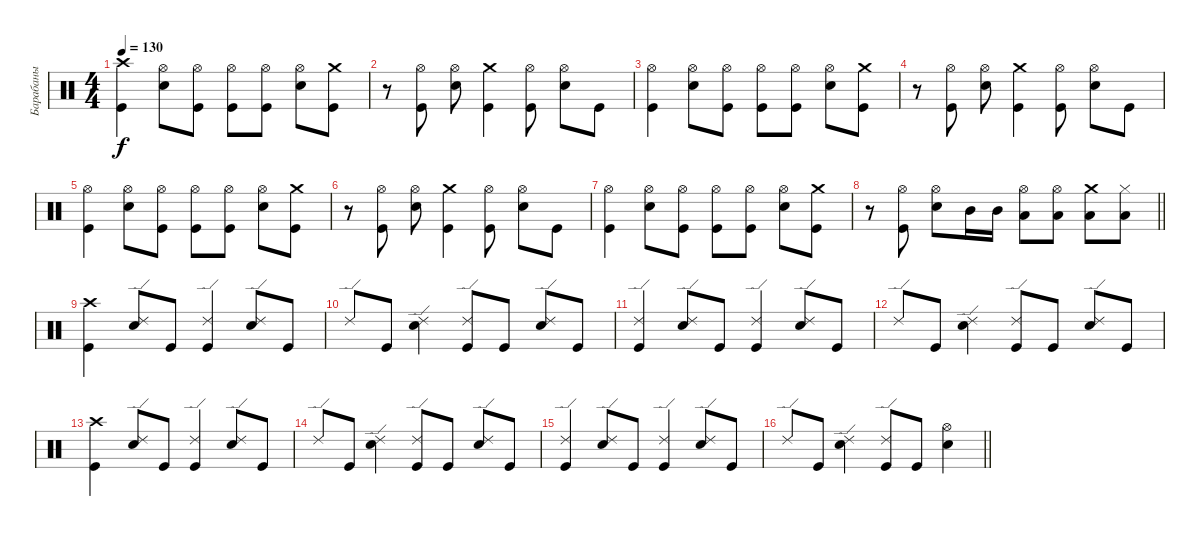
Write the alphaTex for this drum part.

\track ("Барабаны" "Барабаны") {instrument percussion}
\staff {score}
\articulation defaults
\ts (4 4)
\tempo 130
\clef neutral
\ks c
("Crash high (hit)" "Kick (hit)").4{dy f} ("Hi-Hat (open)" "Electric Snare (hit)").8 ("Hi-Hat (open)" "Kick (hit)").8 ("Hi-Hat (open)" "Kick (hit)").8 ("Hi-Hat (open)" "Kick (hit)").8 ("Hi-Hat (open)" "Electric Snare (hit)").8 ("Crash medium (hit)" "Kick (hit)").8 |
r.8 ("Hi-Hat (open)" "Kick (hit)").8 ("Hi-Hat (open)" "Electric Snare (hit)").8 ("Crash medium (hit)" "Kick (hit)").4 ("Hi-Hat (open)" "Kick (hit)").8 ("Hi-Hat (open)" "Electric Snare (hit)").8 "Kick (hit)".8 |
("Hi-Hat (open)" "Kick (hit)").4 ("Hi-Hat (open)" "Electric Snare (hit)").8 ("Hi-Hat (open)" "Kick (hit)").8 ("Hi-Hat (open)" "Kick (hit)").8 ("Hi-Hat (open)" "Kick (hit)").8 ("Hi-Hat (open)" "Electric Snare (hit)").8 ("Crash medium (hit)" "Kick (hit)").8 |
r.8 ("Hi-Hat (open)" "Kick (hit)").8 ("Hi-Hat (open)" "Electric Snare (hit)").8 ("Crash medium (hit)" "Kick (hit)").4 ("Hi-Hat (open)" "Kick (hit)").8 ("Hi-Hat (open)" "Electric Snare (hit)").8 "Kick (hit)".8 |
("Hi-Hat (open)" "Kick (hit)").4 ("Hi-Hat (open)" "Electric Snare (hit)").8 ("Hi-Hat (open)" "Kick (hit)").8 ("Hi-Hat (open)" "Kick (hit)").8 ("Hi-Hat (open)" "Kick (hit)").8 ("Hi-Hat (open)" "Electric Snare (hit)").8 ("Crash medium (hit)" "Kick (hit)").8 |
r.8 ("Hi-Hat (open)" "Kick (hit)").8 ("Hi-Hat (open)" "Electric Snare (hit)").8 ("Crash medium (hit)" "Kick (hit)").4 ("Hi-Hat (open)" "Kick (hit)").8 ("Hi-Hat (open)" "Electric Snare (hit)").8 "Kick (hit)".8 |
("Hi-Hat (open)" "Kick (hit)").4 ("Hi-Hat (open)" "Electric Snare (hit)").8 ("Hi-Hat (open)" "Kick (hit)").8 ("Hi-Hat (open)" "Kick (hit)").8 ("Hi-Hat (open)" "Kick (hit)").8 ("Hi-Hat (open)" "Electric Snare (hit)").8 ("Crash medium (hit)" "Kick (hit)").8 |
\barLineRight lightlight
r.8 ("Hi-Hat (open)" "Kick (hit)").8 ("Hi-Hat (open)" "Electric Snare (hit)").8 "Mid Tom (hit)".16 "Mid Tom (hit)".16 ("Hi-Hat (open)" "Low Tom (hit)").8 ("Hi-Hat (open)" "Low Tom (hit)").8 ("Crash medium (hit)" "Low Tom (hit)").8 ("Hi-Hat (closed)" "Low Tom (hit)").8 |
("Crash high (hit)" "Kick (hit)").4 ("Ride (edge) 2" "Electric Snare (hit)").8 "Kick (hit)".8 ("Ride (edge) 2" "Kick (hit)").4 ("Ride (edge) 2" "Electric Snare (hit)").8 "Kick (hit)".8 |
"Ride (edge) 2".8 "Kick (hit)".8 ("Ride (edge) 2" "Electric Snare (hit)").4 ("Ride (edge) 2" "Kick (hit)").8 "Kick (hit)".8 ("Ride (edge) 2" "Electric Snare (hit)").8 "Kick (hit)".8 |
("Ride (edge) 2" "Kick (hit)").4 ("Ride (edge) 2" "Electric Snare (hit)").8 "Kick (hit)".8 ("Ride (edge) 2" "Kick (hit)").4 ("Ride (edge) 2" "Electric Snare (hit)").8 "Kick (hit)".8 |
"Ride (edge) 2".8 "Kick (hit)".8 ("Ride (edge) 2" "Electric Snare (hit)").4 ("Ride (edge) 2" "Kick (hit)").8 "Kick (hit)".8 ("Ride (edge) 2" "Electric Snare (hit)").8 "Kick (hit)".8 |
("Crash high (hit)" "Kick (hit)").4 ("Ride (edge) 2" "Electric Snare (hit)").8 "Kick (hit)".8 ("Ride (edge) 2" "Kick (hit)").4 ("Ride (edge) 2" "Electric Snare (hit)").8 "Kick (hit)".8 |
"Ride (edge) 2".8 "Kick (hit)".8 ("Ride (edge) 2" "Electric Snare (hit)").4 ("Ride (edge) 2" "Kick (hit)").8 "Kick (hit)".8 ("Ride (edge) 2" "Electric Snare (hit)").8 "Kick (hit)".8 |
("Ride (edge) 2" "Kick (hit)").4 ("Ride (edge) 2" "Electric Snare (hit)").8 "Kick (hit)".8 ("Ride (edge) 2" "Kick (hit)").4 ("Ride (edge) 2" "Electric Snare (hit)").8 "Kick (hit)".8 |
\barLineRight lightlight "Ride (edge) 2".8 "Kick (hit)".8
("Ride (edge) 2" "Electric Snare (hit)").4 ("Ride (edge) 2" "Kick (hit)").8 "Kick (hit)".8 ("Hi-Hat (open)" "Electric Snare (hit)").4
